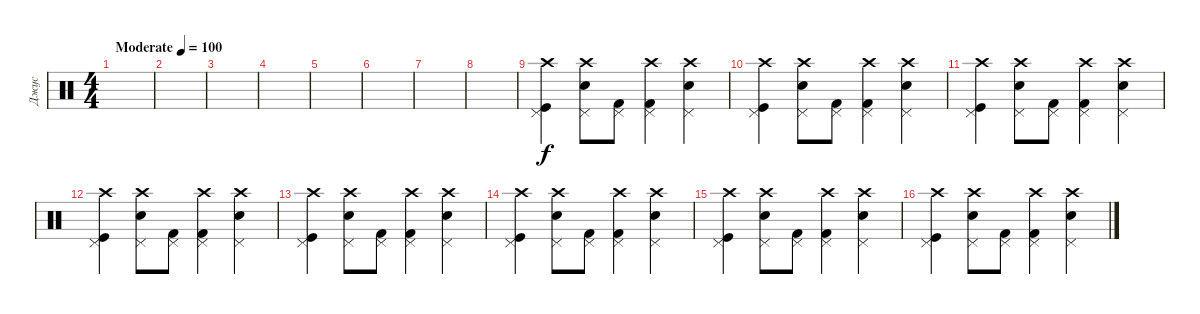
\track ("Джус" "Джус") {instrument percussion}
\staff {score}
\articulation defaults
\ts (4 4)
\tempo (100 "Moderate")
\clef neutral
\ks c
|
|
|
|
|
|
|
|
("Crash high (hit)" "Pedal Hi-Hat (hit)" "Kick (hit)").4 ("Crash high (hit)" "Pedal Hi-Hat (hit)" "Electric Snare (hit)").8 ("Pedal Hi-Hat (hit)" "Kick (hit) 2").8 ("Crash high (hit)" "Pedal Hi-Hat (hit)" "Kick (hit) 2").4 ("Crash high (hit)" "Pedal Hi-Hat (hit)" "Electric Snare (hit)").4 |
("Crash high (hit)" "Pedal Hi-Hat (hit)" "Kick (hit)").4 ("Crash high (hit)" "Pedal Hi-Hat (hit)" "Electric Snare (hit)").8 ("Pedal Hi-Hat (hit)" "Kick (hit) 2").8 ("Crash high (hit)" "Pedal Hi-Hat (hit)" "Kick (hit) 2").4 ("Crash high (hit)" "Pedal Hi-Hat (hit)" "Electric Snare (hit)").4 |
("Crash high (hit)" "Pedal Hi-Hat (hit)" "Kick (hit)").4 ("Crash high (hit)" "Pedal Hi-Hat (hit)" "Electric Snare (hit)").8 ("Pedal Hi-Hat (hit)" "Kick (hit) 2").8 ("Crash high (hit)" "Pedal Hi-Hat (hit)" "Kick (hit) 2").4 ("Crash high (hit)" "Pedal Hi-Hat (hit)" "Electric Snare (hit)").4 |
("Crash high (hit)" "Pedal Hi-Hat (hit)" "Kick (hit)").4 ("Crash high (hit)" "Pedal Hi-Hat (hit)" "Electric Snare (hit)").8 ("Pedal Hi-Hat (hit)" "Kick (hit) 2").8 ("Crash high (hit)" "Pedal Hi-Hat (hit)" "Kick (hit) 2").4 ("Crash high (hit)" "Pedal Hi-Hat (hit)" "Electric Snare (hit)").4 |
("Crash high (hit)" "Pedal Hi-Hat (hit)" "Kick (hit)").4 ("Crash high (hit)" "Pedal Hi-Hat (hit)" "Electric Snare (hit)").8 ("Pedal Hi-Hat (hit)" "Kick (hit) 2").8 ("Crash high (hit)" "Pedal Hi-Hat (hit)" "Kick (hit) 2").4 ("Crash high (hit)" "Pedal Hi-Hat (hit)" "Electric Snare (hit)").4 |
("Crash high (hit)" "Pedal Hi-Hat (hit)" "Kick (hit)").4 ("Crash high (hit)" "Pedal Hi-Hat (hit)" "Electric Snare (hit)").8 ("Pedal Hi-Hat (hit)" "Kick (hit) 2").8 ("Crash high (hit)" "Pedal Hi-Hat (hit)" "Kick (hit) 2").4 ("Crash high (hit)" "Pedal Hi-Hat (hit)" "Electric Snare (hit)").4 |
("Crash high (hit)" "Pedal Hi-Hat (hit)" "Kick (hit)").4 ("Crash high (hit)" "Pedal Hi-Hat (hit)" "Electric Snare (hit)").8 ("Pedal Hi-Hat (hit)" "Kick (hit) 2").8 ("Crash high (hit)" "Pedal Hi-Hat (hit)" "Kick (hit) 2").4 ("Crash high (hit)" "Pedal Hi-Hat (hit)" "Electric Snare (hit)").4 |
("Crash high (hit)" "Pedal Hi-Hat (hit)" "Kick (hit)").4 ("Crash high (hit)" "Pedal Hi-Hat (hit)" "Electric Snare (hit)").8 ("Pedal Hi-Hat (hit)" "Kick (hit) 2").8 ("Crash high (hit)" "Pedal Hi-Hat (hit)" "Kick (hit) 2").4 ("Crash high (hit)" "Pedal Hi-Hat (hit)" "Electric Snare (hit)").4
